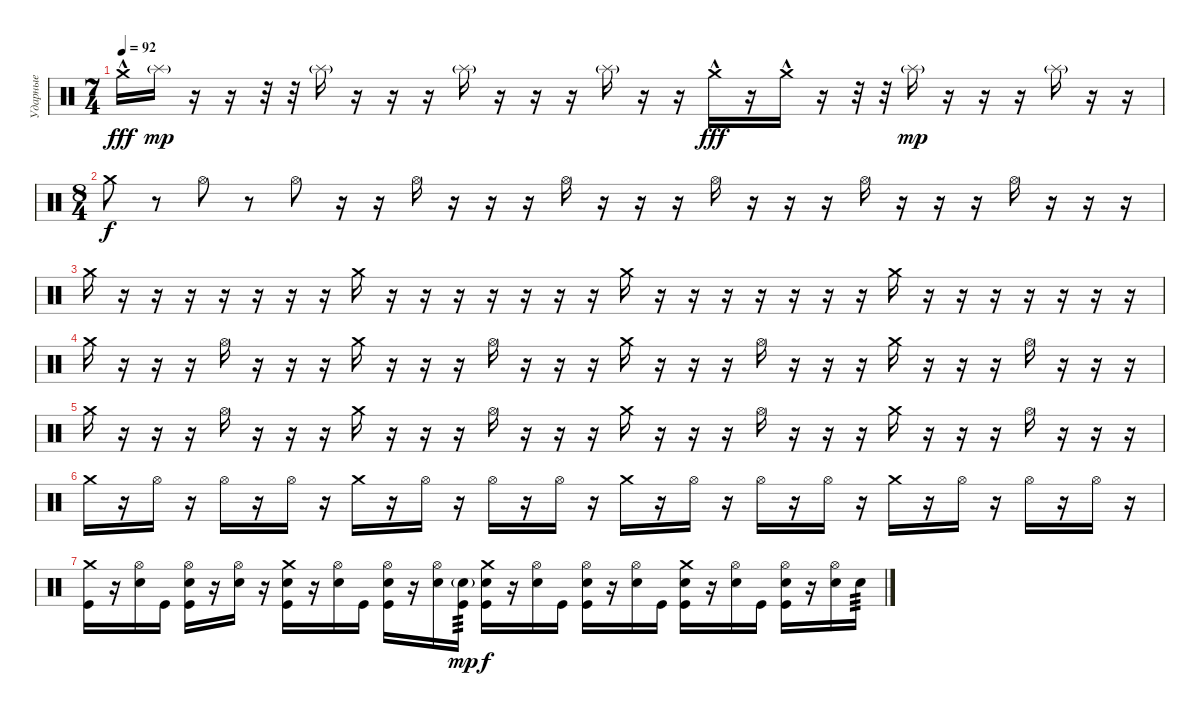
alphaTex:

\track ("Ударные" "Ударные") {instrument percussion}
\staff {score}
\articulation defaults
\ts (7 4)
\tempo 92
\clef neutral
\ks c "Crash medium (hit)"{hac}.16{dy fff} "Splash (hit)"{g}.16{dy mp}
r.16 r.16 r.32 r.32 "Splash (hit)"{g}.16 r.16 r.16 r.16 "Splash (hit)"{g}.16 r.16 r.16 r.16 "Splash (hit)"{g}.16 r.16 r.16 "Crash medium (hit)"{hac}.16{dy fff} r.16 "Crash medium (hit)"{hac}.16 r.16 r.32 r.32 "Splash (hit)"{g}.16{dy mp} r.16 r.16 r.16 "Splash (hit)"{g}.16 r.16 r.16 |
\ts (8 4)
"Crash medium (hit)".8{dy f} r.8 "Hi-Hat (open)".8 r.8 "Hi-Hat (open)".8 r.16 r.16 "Hi-Hat (open)".16 r.16 r.16 r.16 "Hi-Hat (open)".16 r.16 r.16 r.16 "Hi-Hat (open)".16 r.16 r.16 r.16 "Hi-Hat (open)".16 r.16 r.16 r.16 "Hi-Hat (open)".16 r.16 r.16 r.16 |
"Crash medium (hit)".16 r.16 r.16 r.16 r.16 r.16 r.16 r.16 "Crash medium (hit)".16 r.16 r.16 r.16 r.16 r.16 r.16 r.16 "Crash medium (hit)".16 r.16 r.16 r.16 r.16 r.16 r.16 r.16 "Crash medium (hit)".16 r.16 r.16 r.16 r.16 r.16 r.16 r.16 |
"Crash medium (hit)".16 r.16 r.16 r.16 "Hi-Hat (open)".16 r.16 r.16 r.16 "Crash medium (hit)".16 r.16 r.16 r.16 "Hi-Hat (open)".16 r.16 r.16 r.16 "Crash medium (hit)".16 r.16 r.16 r.16 "Hi-Hat (open)".16 r.16 r.16 r.16 "Crash medium (hit)".16 r.16 r.16 r.16 "Hi-Hat (open)".16 r.16 r.16 r.16 |
"Crash medium (hit)".16 r.16 r.16 r.16 "Hi-Hat (open)".16 r.16 r.16 r.16 "Crash medium (hit)".16 r.16 r.16 r.16 "Hi-Hat (open)".16 r.16 r.16 r.16 "Crash medium (hit)".16 r.16 r.16 r.16 "Hi-Hat (open)".16 r.16 r.16 r.16 "Crash medium (hit)".16 r.16 r.16 r.16 "Hi-Hat (open)".16 r.16 r.16 r.16 |
"Crash medium (hit)".16 r.16 "Hi-Hat (open)".16 r.16 "Hi-Hat (open)".16 r.16 "Hi-Hat (open)".16 r.16 "Crash medium (hit)".16 r.16 "Hi-Hat (open)".16 r.16 "Hi-Hat (open)".16 r.16 "Hi-Hat (open)".16 r.16 "Crash medium (hit)".16 r.16 "Hi-Hat (open)".16 r.16 "Hi-Hat (open)".16 r.16 "Hi-Hat (open)".16 r.16 "Crash medium (hit)".16 r.16 "Hi-Hat (open)".16 r.16 "Hi-Hat (open)".16 r.16 "Hi-Hat (open)".16 r.16 |
("Crash medium (hit)" "Kick (hit)").16 r.16 ("Hi-Hat (open)" "Electric Snare (hit)").16 "Kick (hit)".16 ("Hi-Hat (open)" "Electric Snare (hit)" "Kick (hit)").16 r.16 ("Hi-Hat (open)" "Electric Snare (hit)").16 r.16 ("Crash medium (hit)" "Electric Snare (hit)" "Kick (hit)").16 r.16 ("Hi-Hat (open)" "Electric Snare (hit)").16 "Kick (hit)".16 ("Hi-Hat (open)" "Electric Snare (hit)" "Kick (hit)").16 r.16 ("Hi-Hat (open)" "Electric Snare (hit)").16 ("Electric Snare (hit)"{g} "Kick (hit)").16{tp 3 dy mp} ("Crash medium (hit)" "Electric Snare (hit)" "Kick (hit)").16{dy f} r.16 ("Hi-Hat (open)" "Electric Snare (hit)").16 "Kick (hit)".16 ("Hi-Hat (open)" "Electric Snare (hit)" "Kick (hit)").16 r.16 ("Hi-Hat (open)" "Electric Snare (hit)").16 "Kick (hit)".16 ("Crash medium (hit)" "Electric Snare (hit)" "Kick (hit)").16 r.16 ("Hi-Hat (open)" "Electric Snare (hit)").16 "Kick (hit)".16 ("Hi-Hat (open)" "Electric Snare (hit)" "Kick (hit)").16 r.16 ("Hi-Hat (open)" "Electric Snare (hit)").16 "Electric Snare (hit)".16{tp 3}
